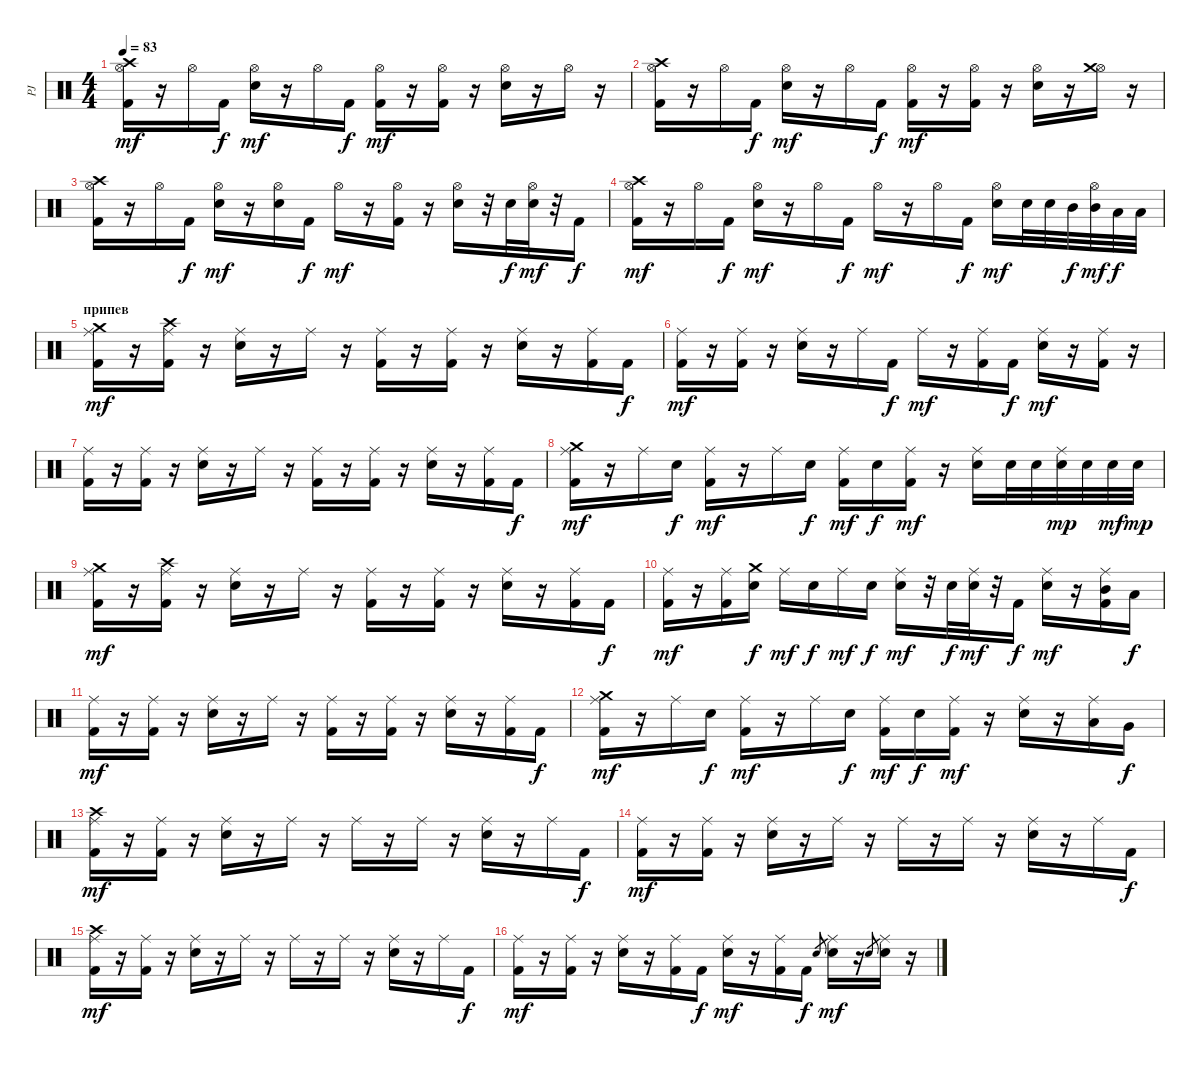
\track ("PJ" "PJ") {instrument percussion}
\staff {score}
\articulation defaults
\ts (4 4)
\tempo 83
\clef neutral
\ks c
("Hi-Hat (open)" "Crash high (hit)" "Kick (hit) 2").16{dy mf} r.16 "Hi-Hat (open)".16 "Kick (hit) 2".16{dy f} ("Hi-Hat (open)" "Electric Snare (hit)").16{dy mf} r.16 "Hi-Hat (open)".16 "Kick (hit) 2".16{dy f} ("Hi-Hat (open)" "Kick (hit) 2").16{dy mf} r.16 ("Hi-Hat (open)" "Kick (hit) 2").16 r.16 ("Hi-Hat (open)" "Electric Snare (hit)").16 r.16 "Hi-Hat (open)".16 r.16 |
("Hi-Hat (open)" "Crash high (hit)" "Kick (hit) 2").16 r.16 "Hi-Hat (open)".16 "Kick (hit) 2".16{dy f} ("Hi-Hat (open)" "Electric Snare (hit)").16{dy mf} r.16 "Hi-Hat (open)".16 "Kick (hit) 2".16{dy f} ("Hi-Hat (open)" "Kick (hit) 2").16{dy mf} r.16 ("Hi-Hat (open)" "Kick (hit) 2").16 r.16 ("Hi-Hat (open)" "Electric Snare (hit)").16 r.16 ("Hi-Hat (open)" "Crash medium (hit)").16 r.16 |
("Hi-Hat (open)" "Crash high (hit)" "Kick (hit) 2").16 r.16 "Hi-Hat (open)".16 "Kick (hit) 2".16{dy f} ("Hi-Hat (open)" "Electric Snare (hit)").16{dy mf} r.16 ("Hi-Hat (open)" "Electric Snare (hit)").16 "Kick (hit) 2".16{dy f} "Hi-Hat (open)".16{dy mf} r.16 ("Hi-Hat (open)" "Kick (hit) 2").16 r.16 ("Hi-Hat (open)" "Electric Snare (hit)").16 r.32 "Electric Snare (hit)".32{dy f} ("Hi-Hat (open)" "Electric Snare (hit)").32{dy mf} r.32 "Kick (hit) 2".16{dy f} |
("Hi-Hat (open)" "Crash high (hit)" "Kick (hit) 2").16{dy mf} r.16 "Hi-Hat (open)".16 "Kick (hit) 2".16{dy f} ("Hi-Hat (open)" "Electric Snare (hit)").16{dy mf} r.16 "Hi-Hat (open)".16 "Kick (hit) 2".16{dy f} "Hi-Hat (open)".16{dy mf} r.16 "Hi-Hat (open)".16 "Kick (hit) 2".16{dy f} ("Hi-Hat (open)" "Electric Snare (hit)").16{dy mf} "Electric Snare (hit)".32 "Electric Snare (hit)".32 "Mid Tom (hit)".32{dy f} ("Hi-Hat (open)" "Mid Tom (hit)").32{dy mf} "Low Tom (hit)".32{dy f} "Low Tom (hit)".32 |
\section ("" "припев")
("Ride (middle)" "Crash medium (hit)" "Kick (hit) 2").16{dy mf} r.16 ("Ride (middle)" "Crash high (hit)" "Kick (hit) 2").16 r.16 ("Ride (middle)" "Electric Snare (hit)").16 r.16 "Ride (middle)".16 r.16 ("Ride (middle)" "Kick (hit) 2").16 r.16 ("Ride (middle)" "Kick (hit) 2").16 r.16 ("Ride (middle)" "Electric Snare (hit)").16 r.16 ("Ride (middle)" "Kick (hit) 2").16 "Kick (hit) 2".16{dy f} |
("Ride (middle)" "Kick (hit) 2").16{dy mf} r.16 ("Ride (middle)" "Kick (hit) 2").16 r.16 ("Ride (middle)" "Electric Snare (hit)").16 r.16 "Ride (middle)".16 "Kick (hit) 2".16{dy f} "Ride (middle)".16{dy mf} r.16 ("Ride (middle)" "Kick (hit) 2").16 "Kick (hit) 2".16{dy f} ("Ride (middle)" "Electric Snare (hit)").16{dy mf} r.16 ("Ride (middle)" "Kick (hit) 2").16 r.16 |
("Ride (middle)" "Kick (hit) 2").16 r.16 ("Ride (middle)" "Kick (hit) 2").16 r.16 ("Ride (middle)" "Electric Snare (hit)").16 r.16 "Ride (middle)".16 r.16 ("Ride (middle)" "Kick (hit) 2").16 r.16 ("Ride (middle)" "Kick (hit) 2").16 r.16 ("Ride (middle)" "Electric Snare (hit)").16 r.16 ("Ride (middle)" "Kick (hit) 2").16 "Kick (hit) 2".16{dy f} |
("Ride (middle)" "Crash medium (hit)" "Kick (hit) 2").16{dy mf} r.16 "Ride (middle)".16 "Electric Snare (hit)".16{dy f} ("Ride (middle)" "Kick (hit) 2").16{dy mf} r.16 "Ride (middle)".16 "Electric Snare (hit)".16{dy f} ("Ride (middle)" "Kick (hit) 2").16{dy mf} "Electric Snare (hit)".16{dy f} ("Ride (middle)" "Kick (hit) 2").16{dy mf} r.16 ("Ride (middle)" "Electric Snare (hit)").16 "Electric Snare (hit)".32 "Electric Snare (hit)".32 ("Ride (middle)" "Electric Snare (hit)").32{dy mp} "Electric Snare (hit)".32 "Electric Snare (hit)".32{dy mf} "Electric Snare (hit)".32{dy mp} |
("Ride (middle)" "Crash medium (hit)" "Kick (hit) 2").16{dy mf} r.16 ("Ride (middle)" "Crash high (hit)" "Kick (hit) 2").16 r.16 ("Ride (middle)" "Electric Snare (hit)").16 r.16 "Ride (middle)".16 r.16 ("Ride (middle)" "Kick (hit) 2").16 r.16 ("Ride (middle)" "Kick (hit) 2").16 r.16 ("Ride (middle)" "Electric Snare (hit)").16 r.16 ("Ride (middle)" "Kick (hit) 2").16 "Kick (hit) 2".16{dy f} |
("Ride (middle)" "Kick (hit) 2").16{dy mf} r.16 ("Ride (middle)" "Kick (hit) 2").16 ("Crash medium (hit)" "Electric Snare (hit)").16{dy f} "Ride (middle)".16{dy mf} "Electric Snare (hit)".16{dy f} "Ride (middle)".16{dy mf} "Electric Snare (hit)".16{dy f} ("Ride (middle)" "Electric Snare (hit)").16{dy mf} r.32 "Electric Snare (hit)".32{dy f} ("Ride (middle)" "Electric Snare (hit)").32{dy mf} r.32 "Kick (hit) 2".16{dy f} ("Ride (middle)" "Electric Snare (hit)").16{dy mf} r.16 ("Ride (middle)" "Mid Tom (hit)" "Kick (hit) 2").16 "Low Tom (hit)".16{dy f} |
("Ride (middle)" "Kick (hit) 2").16{dy mf} r.16 ("Ride (middle)" "Kick (hit) 2").16 r.16 ("Ride (middle)" "Electric Snare (hit)").16 r.16 "Ride (middle)".16 r.16 ("Ride (middle)" "Kick (hit) 2").16 r.16 ("Ride (middle)" "Kick (hit) 2").16 r.16 ("Ride (middle)" "Electric Snare (hit)").16 r.16 ("Ride (middle)" "Kick (hit) 2").16 "Kick (hit) 2".16{dy f} |
("Ride (middle)" "Crash medium (hit)" "Kick (hit) 2").16{dy mf} r.16 "Ride (middle)".16 "Electric Snare (hit)".16{dy f} ("Ride (middle)" "Kick (hit) 2").16{dy mf} r.16 "Ride (middle)".16 "Electric Snare (hit)".16{dy f} ("Ride (middle)" "Kick (hit) 2").16{dy mf} "Electric Snare (hit)".16{dy f} ("Ride (middle)" "Kick (hit) 2").16{dy mf} r.16 ("Ride (middle)" "Electric Snare (hit)").16 r.16 ("Ride (middle)" "Low Tom (hit)").16 "Very Low Tom (hit)".16{dy f} |
("Ride (middle)" "Crash high (hit)" "Kick (hit) 2").16{dy mf} r.16 ("Ride (middle)" "Kick (hit) 2").16 r.16 ("Ride (middle)" "Electric Snare (hit)").16 r.16 "Ride (middle)".16 r.16 "Ride (middle)".16 r.16 "Ride (middle)".16 r.16 ("Ride (middle)" "Electric Snare (hit)").16 r.16 "Ride (middle)".16 "Kick (hit) 2".16{dy f} |
("Ride (middle)" "Kick (hit) 2").16{dy mf} r.16 ("Ride (middle)" "Kick (hit) 2").16 r.16 ("Ride (middle)" "Electric Snare (hit)").16 r.16 "Ride (middle)".16 r.16 "Ride (middle)".16 r.16 "Ride (middle)".16 r.16 ("Ride (middle)" "Electric Snare (hit)").16 r.16 "Ride (middle)".16 "Kick (hit) 2".16{dy f} |
("Ride (middle)" "Crash high (hit)" "Kick (hit) 2").16{dy mf} r.16 ("Ride (middle)" "Kick (hit) 2").16 r.16 ("Ride (middle)" "Electric Snare (hit)").16 r.16 "Ride (middle)".16 r.16 "Ride (middle)".16 r.16 "Ride (middle)".16 r.16 ("Ride (middle)" "Electric Snare (hit)").16 r.16 "Ride (middle)".16 "Kick (hit) 2".16{dy f} |
("Ride (middle)" "Kick (hit) 2").16{dy mf} r.16 ("Ride (middle)" "Kick (hit) 2").16 r.16 ("Ride (middle)" "Electric Snare (hit)").16 r.16 ("Ride (middle)" "Kick (hit) 2").16 "Kick (hit) 2".16{dy f} ("Ride (middle)" "Electric Snare (hit)").16{dy mf} r.16 ("Ride (middle)" "Kick (hit) 2").16 "Kick (hit) 2".16{dy f} "Electric Snare (hit)".8{gr} ("Ride (middle)" "Electric Snare (hit)").16{dy mf} r.16 "Electric Snare (hit)".8{gr} ("Ride (middle)" "Electric Snare (hit)").16 r.16
